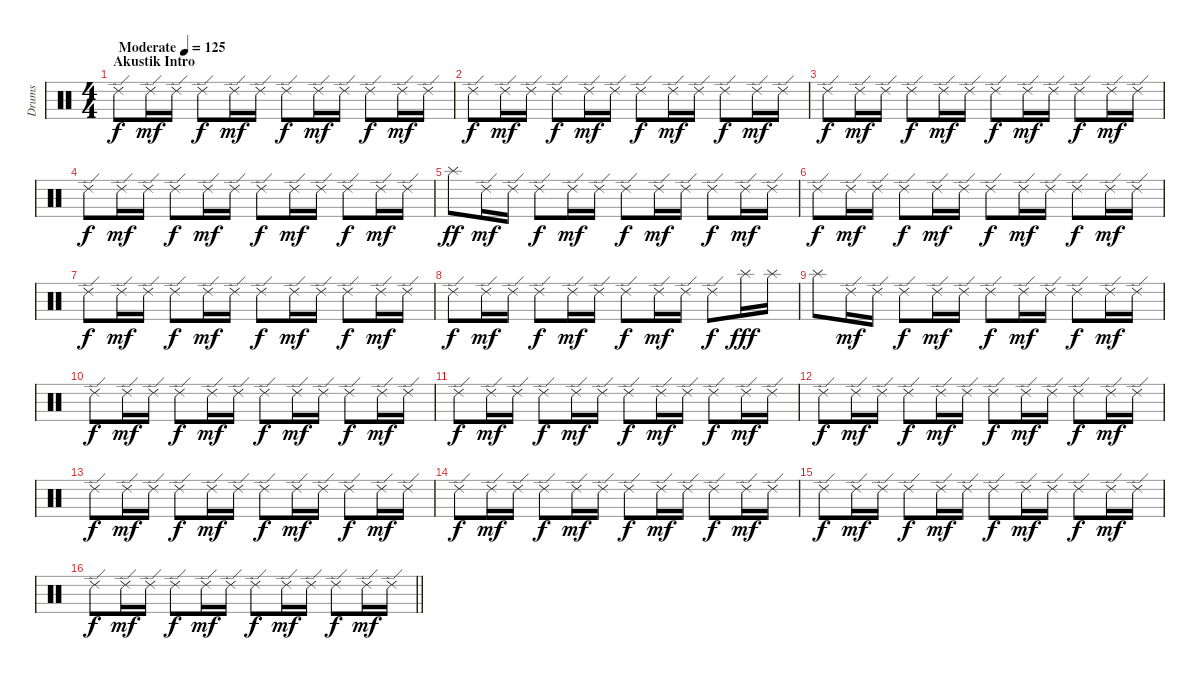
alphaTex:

\track ("Drums" "Drums") {instrument percussion}
\staff {score}
\articulation defaults
\ts (4 4)
\section ("" "Akustik Intro")
\tempo (125 "Moderate")
\clef neutral
\ks c "Ride (edge) 2".8{dy f} "Ride (edge) 2".16{dy mf} "Ride (edge) 2".16 "Ride (edge) 2".8{dy f} "Ride (edge) 2".16{dy mf} "Ride (edge) 2".16 "Ride (edge) 2".8{dy f} "Ride (edge) 2".16{dy mf} "Ride (edge) 2".16 "Ride (edge) 2".8{dy f} "Ride (edge) 2".16{dy mf} "Ride (edge) 2".16
|
"Ride (edge) 2".8{dy f} "Ride (edge) 2".16{dy mf} "Ride (edge) 2".16 "Ride (edge) 2".8{dy f} "Ride (edge) 2".16{dy mf} "Ride (edge) 2".16 "Ride (edge) 2".8{dy f} "Ride (edge) 2".16{dy mf} "Ride (edge) 2".16 "Ride (edge) 2".8{dy f} "Ride (edge) 2".16{dy mf} "Ride (edge) 2".16 |
"Ride (edge) 2".8{dy f} "Ride (edge) 2".16{dy mf} "Ride (edge) 2".16 "Ride (edge) 2".8{dy f} "Ride (edge) 2".16{dy mf} "Ride (edge) 2".16 "Ride (edge) 2".8{dy f} "Ride (edge) 2".16{dy mf} "Ride (edge) 2".16 "Ride (edge) 2".8{dy f} "Ride (edge) 2".16{dy mf} "Ride (edge) 2".16 |
"Ride (edge) 2".8{dy f} "Ride (edge) 2".16{dy mf} "Ride (edge) 2".16 "Ride (edge) 2".8{dy f} "Ride (edge) 2".16{dy mf} "Ride (edge) 2".16 "Ride (edge) 2".8{dy f} "Ride (edge) 2".16{dy mf} "Ride (edge) 2".16 "Ride (edge) 2".8{dy f} "Ride (edge) 2".16{dy mf} "Ride (edge) 2".16 |
"Splash (hit)".8{dy ff} "Ride (edge) 2".16{dy mf} "Ride (edge) 2".16 "Ride (edge) 2".8{dy f} "Ride (edge) 2".16{dy mf} "Ride (edge) 2".16 "Ride (edge) 2".8{dy f} "Ride (edge) 2".16{dy mf} "Ride (edge) 2".16 "Ride (edge) 2".8{dy f} "Ride (edge) 2".16{dy mf} "Ride (edge) 2".16 |
"Ride (edge) 2".8{dy f} "Ride (edge) 2".16{dy mf} "Ride (edge) 2".16 "Ride (edge) 2".8{dy f} "Ride (edge) 2".16{dy mf} "Ride (edge) 2".16 "Ride (edge) 2".8{dy f} "Ride (edge) 2".16{dy mf} "Ride (edge) 2".16 "Ride (edge) 2".8{dy f} "Ride (edge) 2".16{dy mf} "Ride (edge) 2".16 |
"Ride (edge) 2".8{dy f} "Ride (edge) 2".16{dy mf} "Ride (edge) 2".16 "Ride (edge) 2".8{dy f} "Ride (edge) 2".16{dy mf} "Ride (edge) 2".16 "Ride (edge) 2".8{dy f} "Ride (edge) 2".16{dy mf} "Ride (edge) 2".16 "Ride (edge) 2".8{dy f} "Ride (edge) 2".16{dy mf} "Ride (edge) 2".16 |
"Ride (edge) 2".8{dy f} "Ride (edge) 2".16{dy mf} "Ride (edge) 2".16 "Ride (edge) 2".8{dy f} "Ride (edge) 2".16{dy mf} "Ride (edge) 2".16 "Ride (edge) 2".8{dy f} "Ride (edge) 2".16{dy mf} "Ride (edge) 2".16 "Ride (edge) 2".8{dy f} "Splash (hit)".16{dy fff} "Splash (hit)".16 |
"Splash (hit)".8 "Ride (edge) 2".16{dy mf} "Ride (edge) 2".16 "Ride (edge) 2".8{dy f} "Ride (edge) 2".16{dy mf} "Ride (edge) 2".16 "Ride (edge) 2".8{dy f} "Ride (edge) 2".16{dy mf} "Ride (edge) 2".16 "Ride (edge) 2".8{dy f} "Ride (edge) 2".16{dy mf} "Ride (edge) 2".16 |
"Ride (edge) 2".8{dy f} "Ride (edge) 2".16{dy mf} "Ride (edge) 2".16 "Ride (edge) 2".8{dy f} "Ride (edge) 2".16{dy mf} "Ride (edge) 2".16 "Ride (edge) 2".8{dy f} "Ride (edge) 2".16{dy mf} "Ride (edge) 2".16 "Ride (edge) 2".8{dy f} "Ride (edge) 2".16{dy mf} "Ride (edge) 2".16 |
"Ride (edge) 2".8{dy f} "Ride (edge) 2".16{dy mf} "Ride (edge) 2".16 "Ride (edge) 2".8{dy f} "Ride (edge) 2".16{dy mf} "Ride (edge) 2".16 "Ride (edge) 2".8{dy f} "Ride (edge) 2".16{dy mf} "Ride (edge) 2".16 "Ride (edge) 2".8{dy f} "Ride (edge) 2".16{dy mf} "Ride (edge) 2".16 |
"Ride (edge) 2".8{dy f} "Ride (edge) 2".16{dy mf} "Ride (edge) 2".16 "Ride (edge) 2".8{dy f} "Ride (edge) 2".16{dy mf} "Ride (edge) 2".16 "Ride (edge) 2".8{dy f} "Ride (edge) 2".16{dy mf} "Ride (edge) 2".16 "Ride (edge) 2".8{dy f} "Ride (edge) 2".16{dy mf} "Ride (edge) 2".16 |
"Ride (edge) 2".8{dy f} "Ride (edge) 2".16{dy mf} "Ride (edge) 2".16 "Ride (edge) 2".8{dy f} "Ride (edge) 2".16{dy mf} "Ride (edge) 2".16 "Ride (edge) 2".8{dy f} "Ride (edge) 2".16{dy mf} "Ride (edge) 2".16 "Ride (edge) 2".8{dy f} "Ride (edge) 2".16{dy mf} "Ride (edge) 2".16 |
"Ride (edge) 2".8{dy f} "Ride (edge) 2".16{dy mf} "Ride (edge) 2".16 "Ride (edge) 2".8{dy f} "Ride (edge) 2".16{dy mf} "Ride (edge) 2".16 "Ride (edge) 2".8{dy f} "Ride (edge) 2".16{dy mf} "Ride (edge) 2".16 "Ride (edge) 2".8{dy f} "Ride (edge) 2".16{dy mf} "Ride (edge) 2".16 |
"Ride (edge) 2".8{dy f} "Ride (edge) 2".16{dy mf} "Ride (edge) 2".16 "Ride (edge) 2".8{dy f} "Ride (edge) 2".16{dy mf} "Ride (edge) 2".16 "Ride (edge) 2".8{dy f} "Ride (edge) 2".16{dy mf} "Ride (edge) 2".16 "Ride (edge) 2".8{dy f} "Ride (edge) 2".16{dy mf} "Ride (edge) 2".16 |
\barLineRight lightlight "Ride (edge) 2".8{dy f} "Ride (edge) 2".16{dy mf} "Ride (edge) 2".16 "Ride (edge) 2".8{dy f} "Ride (edge) 2".16{dy mf} "Ride (edge) 2".16 "Ride (edge) 2".8{dy f} "Ride (edge) 2".16{dy mf} "Ride (edge) 2".16 "Ride (edge) 2".8{dy f} "Ride (edge) 2".16{dy mf} "Ride (edge) 2".16
